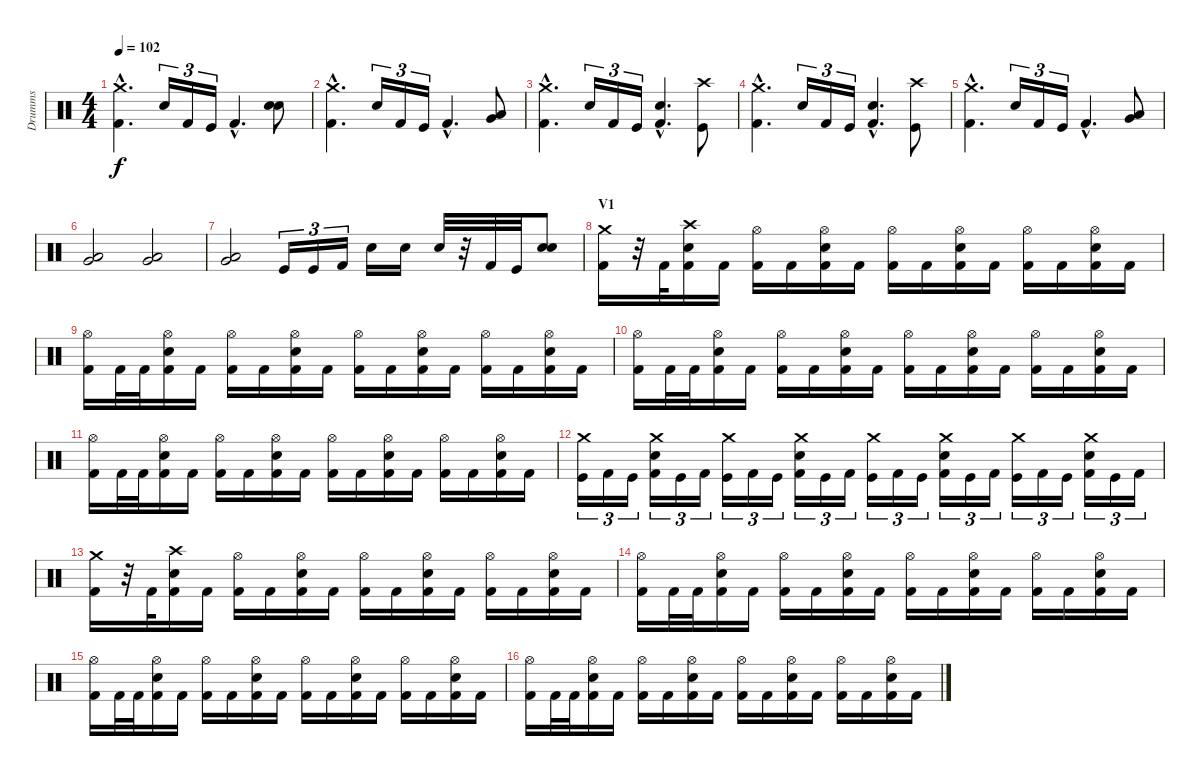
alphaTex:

\track ("Drumms" "Drumms") {instrument percussion}
\staff {score}
\articulation defaults
\ts (4 4)
\tempo 102
\clef neutral
\ks c
("Crash medium (hit)"{hac} "Kick (hit) 2"{hac}).4{d dy f} "Snare (hit) 2".16{tu (3 2)} "Kick (hit) 2".16{tu (3 2)} "Kick (hit)".16{tu (3 2)} "Kick (hit) 2"{hac}.4{d} ("Snare (hit) 2" "Snare (hit) 2").8 |
("Crash medium (hit)"{hac} "Kick (hit) 2"{hac}).4{d} "Snare (hit) 2".16{tu (3 2)} "Kick (hit) 2".16{tu (3 2)} "Kick (hit)".16{tu (3 2)} "Kick (hit) 2"{hac}.4{d} ("Low Tom (hit)" "Very Low Tom (hit)").8 |
("Crash medium (hit)"{hac} "Kick (hit) 2"{hac}).4{d} "Snare (hit) 2".16{tu (3 2)} "Kick (hit) 2".16{tu (3 2)} "Kick (hit)".16{tu (3 2)} ("Snare (hit) 2"{hac} "Kick (hit) 2"{hac}).4{d} ("Crash high (hit)" "Kick (hit)").8 |
("Crash medium (hit)"{hac} "Kick (hit) 2"{hac}).4{d} "Snare (hit) 2".16{tu (3 2)} "Kick (hit) 2".16{tu (3 2)} "Kick (hit)".16{tu (3 2)} ("Snare (hit) 2"{hac} "Kick (hit) 2"{hac}).4{d} ("Crash high (hit)" "Kick (hit)").8 |
("Crash medium (hit)"{hac} "Kick (hit) 2"{hac}).4{d} "Snare (hit) 2".16{tu (3 2)} "Kick (hit) 2".16{tu (3 2)} "Kick (hit)".16{tu (3 2)} "Kick (hit) 2"{hac}.4{d} ("Very Low Tom (hit)" "Low Tom (hit)").8 |
("Very Low Tom (hit)" "Low Tom (hit)").2 ("Very Low Tom (hit)" "Low Tom (hit)").2 |
("Low Tom (hit)" "Very Low Tom (hit)").2 "Kick (hit)".16{tu (3 2)} "Kick (hit)".16{tu (3 2)} "Kick (hit) 2".16{tu (3 2)} "Snare (hit) 2".16 "Snare (hit) 2".16 "Snare (hit) 2".32 r.32 "Kick (hit) 2".32 "Kick (hit)".32 ("Snare (hit) 2" "Snare (hit) 2").8 |
\section ("" "V1")
("Crash medium (hit)" "Kick (hit) 2").16 r.32 "Kick (hit) 2".32 ("Crash high (hit)" "Snare (hit) 2" "Kick (hit) 2").16 "Kick (hit) 2".16 ("Hi-Hat (open)" "Kick (hit) 2").16 "Kick (hit) 2".16 ("Hi-Hat (open)" "Snare (hit) 2" "Kick (hit) 2").16 "Kick (hit) 2".16 ("Hi-Hat (open)" "Kick (hit) 2").16 "Kick (hit) 2".16 ("Hi-Hat (open)" "Snare (hit) 2" "Kick (hit) 2").16 "Kick (hit) 2".16 ("Hi-Hat (open)" "Kick (hit) 2").16 "Kick (hit) 2".16 ("Hi-Hat (open)" "Snare (hit) 2" "Kick (hit) 2").16 "Kick (hit) 2".16 |
("Hi-Hat (open)" "Kick (hit) 2").16 "Kick (hit) 2".32 "Kick (hit) 2".32 ("Hi-Hat (open)" "Snare (hit) 2" "Kick (hit) 2").16 "Kick (hit) 2".16 ("Hi-Hat (open)" "Kick (hit) 2").16 "Kick (hit) 2".16 ("Hi-Hat (open)" "Snare (hit) 2" "Kick (hit) 2").16 "Kick (hit) 2".16 ("Hi-Hat (open)" "Kick (hit) 2").16 "Kick (hit) 2".16 ("Hi-Hat (open)" "Snare (hit) 2" "Kick (hit) 2").16 "Kick (hit) 2".16 ("Hi-Hat (open)" "Kick (hit) 2").16 "Kick (hit) 2".16 ("Hi-Hat (open)" "Snare (hit) 2" "Kick (hit) 2").16 "Kick (hit) 2".16 |
("Hi-Hat (open)" "Kick (hit) 2").16 "Kick (hit) 2".32 "Kick (hit) 2".32 ("Hi-Hat (open)" "Snare (hit) 2" "Kick (hit) 2").16 "Kick (hit) 2".16 ("Hi-Hat (open)" "Kick (hit) 2").16 "Kick (hit) 2".16 ("Hi-Hat (open)" "Snare (hit) 2" "Kick (hit) 2").16 "Kick (hit) 2".16 ("Hi-Hat (open)" "Kick (hit) 2").16 "Kick (hit) 2".16 ("Hi-Hat (open)" "Snare (hit) 2" "Kick (hit) 2").16 "Kick (hit) 2".16 ("Hi-Hat (open)" "Kick (hit) 2").16 "Kick (hit) 2".16 ("Hi-Hat (open)" "Snare (hit) 2" "Kick (hit) 2").16 "Kick (hit) 2".16 |
("Hi-Hat (open)" "Kick (hit) 2").16 "Kick (hit) 2".32 "Kick (hit) 2".32 ("Hi-Hat (open)" "Snare (hit) 2" "Kick (hit) 2").16 "Kick (hit) 2".16 ("Hi-Hat (open)" "Kick (hit) 2").16 "Kick (hit) 2".16 ("Hi-Hat (open)" "Snare (hit) 2" "Kick (hit) 2").16 "Kick (hit) 2".16 ("Hi-Hat (open)" "Kick (hit) 2").16 "Kick (hit) 2".16 ("Hi-Hat (open)" "Snare (hit) 2" "Kick (hit) 2").16 "Kick (hit) 2".16 ("Hi-Hat (open)" "Kick (hit) 2").16 "Kick (hit) 2".16 ("Hi-Hat (open)" "Snare (hit) 2" "Kick (hit) 2").16 "Kick (hit) 2".16 |
("Crash medium (hit)" "Kick (hit)").16{tu (3 2)} "Kick (hit) 2".16{tu (3 2)} "Kick (hit)".16{tu (3 2)} ("Crash medium (hit)" "Snare (hit) 2" "Kick (hit) 2").16{tu (3 2)} "Kick (hit)".16{tu (3 2)} "Kick (hit) 2".16{tu (3 2)} ("Crash medium (hit)" "Kick (hit)").16{tu (3 2)} "Kick (hit) 2".16{tu (3 2)} "Kick (hit)".16{tu (3 2)} ("Crash medium (hit)" "Snare (hit) 2" "Kick (hit) 2").16{tu (3 2)} "Kick (hit)".16{tu (3 2)} "Kick (hit) 2".16{tu (3 2)} ("Crash medium (hit)" "Kick (hit)").16{tu (3 2)} "Kick (hit) 2".16{tu (3 2)} "Kick (hit)".16{tu (3 2)} ("Crash medium (hit)" "Snare (hit) 2" "Kick (hit) 2").16{tu (3 2)} "Kick (hit)".16{tu (3 2)} "Kick (hit) 2".16{tu (3 2)} ("Crash medium (hit)" "Kick (hit)").16{tu (3 2)} "Kick (hit) 2".16{tu (3 2)} "Kick (hit)".16{tu (3 2)} ("Crash medium (hit)" "Snare (hit) 2" "Kick (hit) 2").16{tu (3 2)} "Kick (hit)".16{tu (3 2)} "Kick (hit) 2".16{tu (3 2)} |
("Crash medium (hit)" "Kick (hit) 2").16 r.32 "Kick (hit) 2".32 ("Crash high (hit)" "Snare (hit) 2" "Kick (hit) 2").16 "Kick (hit) 2".16 ("Hi-Hat (open)" "Kick (hit) 2").16 "Kick (hit) 2".16 ("Hi-Hat (open)" "Snare (hit) 2" "Kick (hit) 2").16 "Kick (hit) 2".16 ("Hi-Hat (open)" "Kick (hit) 2").16 "Kick (hit) 2".16 ("Hi-Hat (open)" "Snare (hit) 2" "Kick (hit) 2").16 "Kick (hit) 2".16 ("Hi-Hat (open)" "Kick (hit) 2").16 "Kick (hit) 2".16 ("Hi-Hat (open)" "Snare (hit) 2" "Kick (hit) 2").16 "Kick (hit) 2".16 |
("Hi-Hat (open)" "Kick (hit) 2").16 "Kick (hit) 2".32 "Kick (hit) 2".32 ("Hi-Hat (open)" "Snare (hit) 2" "Kick (hit) 2").16 "Kick (hit) 2".16 ("Hi-Hat (open)" "Kick (hit) 2").16 "Kick (hit) 2".16 ("Hi-Hat (open)" "Snare (hit) 2" "Kick (hit) 2").16 "Kick (hit) 2".16 ("Hi-Hat (open)" "Kick (hit) 2").16 "Kick (hit) 2".16 ("Hi-Hat (open)" "Snare (hit) 2" "Kick (hit) 2").16 "Kick (hit) 2".16 ("Hi-Hat (open)" "Kick (hit) 2").16 "Kick (hit) 2".16 ("Hi-Hat (open)" "Snare (hit) 2" "Kick (hit) 2").16 "Kick (hit) 2".16 |
("Hi-Hat (open)" "Kick (hit) 2").16 "Kick (hit) 2".32 "Kick (hit) 2".32 ("Hi-Hat (open)" "Snare (hit) 2" "Kick (hit) 2").16 "Kick (hit) 2".16 ("Hi-Hat (open)" "Kick (hit) 2").16 "Kick (hit) 2".16 ("Hi-Hat (open)" "Snare (hit) 2" "Kick (hit) 2").16 "Kick (hit) 2".16 ("Hi-Hat (open)" "Kick (hit) 2").16 "Kick (hit) 2".16 ("Hi-Hat (open)" "Snare (hit) 2" "Kick (hit) 2").16 "Kick (hit) 2".16 ("Hi-Hat (open)" "Kick (hit) 2").16 "Kick (hit) 2".16 ("Hi-Hat (open)" "Snare (hit) 2" "Kick (hit) 2").16 "Kick (hit) 2".16 |
("Hi-Hat (open)" "Kick (hit) 2").16 "Kick (hit) 2".32 "Kick (hit) 2".32 ("Hi-Hat (open)" "Snare (hit) 2" "Kick (hit) 2").16 "Kick (hit) 2".16 ("Hi-Hat (open)" "Kick (hit) 2").16 "Kick (hit) 2".16 ("Hi-Hat (open)" "Snare (hit) 2" "Kick (hit) 2").16 "Kick (hit) 2".16 ("Hi-Hat (open)" "Kick (hit) 2").16 "Kick (hit) 2".16 ("Hi-Hat (open)" "Snare (hit) 2" "Kick (hit) 2").16 "Kick (hit) 2".16 ("Hi-Hat (open)" "Kick (hit) 2").16 "Kick (hit) 2".16 ("Hi-Hat (open)" "Snare (hit) 2" "Kick (hit) 2").16 "Kick (hit) 2".16
